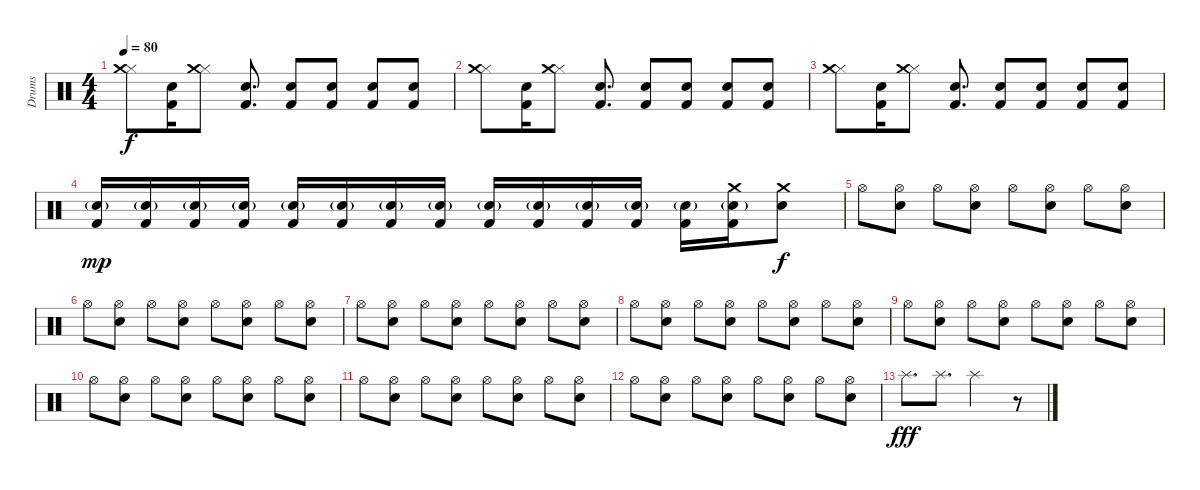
\track ("Drums" "Drums") {instrument percussion}
\staff {score}
\articulation defaults
\ts (4 4)
\tempo 80
\clef neutral
\ks c
("Hi-Hat (closed)" "Crash medium (hit)").8{dy f} ("Electric Snare (hit)" "Kick (hit) 2").16 ("Hi-Hat (closed)" "Crash medium (hit)").8 ("Electric Snare (hit)" "Kick (hit) 2").8{d} ("Electric Snare (hit)" "Kick (hit) 2").8 ("Electric Snare (hit)" "Kick (hit) 2").8 ("Electric Snare (hit)" "Kick (hit) 2").8 ("Electric Snare (hit)" "Kick (hit) 2").8 |
("Hi-Hat (closed)" "Crash medium (hit)").8 ("Electric Snare (hit)" "Kick (hit) 2").16 ("Hi-Hat (closed)" "Crash medium (hit)").8 ("Electric Snare (hit)" "Kick (hit) 2").8{d} ("Electric Snare (hit)" "Kick (hit) 2").8 ("Electric Snare (hit)" "Kick (hit) 2").8 ("Electric Snare (hit)" "Kick (hit) 2").8 ("Electric Snare (hit)" "Kick (hit) 2").8 |
("Hi-Hat (closed)" "Crash medium (hit)").8 ("Electric Snare (hit)" "Kick (hit) 2").16 ("Hi-Hat (closed)" "Crash medium (hit)").8 ("Electric Snare (hit)" "Kick (hit) 2").8{d} ("Electric Snare (hit)" "Kick (hit) 2").8 ("Electric Snare (hit)" "Kick (hit) 2").8 ("Electric Snare (hit)" "Kick (hit) 2").8 ("Electric Snare (hit)" "Kick (hit) 2").8 |
("Kick (hit) 2" "Electric Snare (hit)"{g}).16{dy mp volume 7} ("Kick (hit) 2" "Electric Snare (hit)"{g}).16{volume 16} ("Kick (hit) 2" "Electric Snare (hit)"{g}).16 ("Kick (hit) 2" "Electric Snare (hit)"{g}).16 ("Kick (hit) 2" "Electric Snare (hit)"{g}).16 ("Kick (hit) 2" "Electric Snare (hit)"{g}).16 ("Kick (hit) 2" "Electric Snare (hit)"{g}).16 ("Kick (hit) 2" "Electric Snare (hit)"{g}).16 ("Kick (hit) 2" "Electric Snare (hit)"{g}).16 ("Kick (hit) 2" "Electric Snare (hit)"{g}).16 ("Kick (hit) 2" "Electric Snare (hit)"{g}).16 ("Kick (hit) 2" "Electric Snare (hit)"{g}).16 ("Kick (hit) 2" "Electric Snare (hit)"{g}).16 ("Kick (hit) 2" "Electric Snare (hit)"{g} "Crash medium (hit)").16 ("Crash medium (hit)" "Electric Snare (hit)").8{dy f} |
"Hi-Hat (open)".8{volume 13} ("Hi-Hat (open)" "Electric Snare (hit)").8 "Hi-Hat (open)".8 ("Hi-Hat (open)" "Electric Snare (hit)").8 "Hi-Hat (open)".8 ("Hi-Hat (open)" "Electric Snare (hit)").8 "Hi-Hat (open)".8 ("Hi-Hat (open)" "Electric Snare (hit)").8 |
"Hi-Hat (open)".8 ("Hi-Hat (open)" "Electric Snare (hit)").8 "Hi-Hat (open)".8 ("Hi-Hat (open)" "Electric Snare (hit)").8 "Hi-Hat (open)".8 ("Hi-Hat (open)" "Electric Snare (hit)").8 "Hi-Hat (open)".8 ("Hi-Hat (open)" "Electric Snare (hit)").8 |
"Hi-Hat (open)".8 ("Hi-Hat (open)" "Electric Snare (hit)").8 "Hi-Hat (open)".8 ("Hi-Hat (open)" "Electric Snare (hit)").8 "Hi-Hat (open)".8 ("Hi-Hat (open)" "Electric Snare (hit)").8 "Hi-Hat (open)".8 ("Hi-Hat (open)" "Electric Snare (hit)").8 |
"Hi-Hat (open)".8 ("Hi-Hat (open)" "Electric Snare (hit)").8 "Hi-Hat (open)".8 ("Hi-Hat (open)" "Electric Snare (hit)").8 "Hi-Hat (open)".8 ("Hi-Hat (open)" "Electric Snare (hit)").8 "Hi-Hat (open)".8 ("Hi-Hat (open)" "Electric Snare (hit)").8 |
"Hi-Hat (open)".8 ("Hi-Hat (open)" "Electric Snare (hit)").8 "Hi-Hat (open)".8 ("Hi-Hat (open)" "Electric Snare (hit)").8 "Hi-Hat (open)".8 ("Hi-Hat (open)" "Electric Snare (hit)").8 "Hi-Hat (open)".8 ("Hi-Hat (open)" "Electric Snare (hit)").8 |
"Hi-Hat (open)".8 ("Hi-Hat (open)" "Electric Snare (hit)").8 "Hi-Hat (open)".8 ("Hi-Hat (open)" "Electric Snare (hit)").8 "Hi-Hat (open)".8 ("Hi-Hat (open)" "Electric Snare (hit)").8 "Hi-Hat (open)".8 ("Hi-Hat (open)" "Electric Snare (hit)").8 |
"Hi-Hat (open)".8 ("Hi-Hat (open)" "Electric Snare (hit)").8 "Hi-Hat (open)".8 ("Hi-Hat (open)" "Electric Snare (hit)").8 "Hi-Hat (open)".8 ("Hi-Hat (open)" "Electric Snare (hit)").8 "Hi-Hat (open)".8 ("Hi-Hat (open)" "Electric Snare (hit)").8 |
"Hi-Hat (open)".8 ("Hi-Hat (open)" "Electric Snare (hit)").8 "Hi-Hat (open)".8 ("Hi-Hat (open)" "Electric Snare (hit)").8 "Hi-Hat (open)".8 ("Hi-Hat (open)" "Electric Snare (hit)").8 "Hi-Hat (open)".8 ("Hi-Hat (open)" "Electric Snare (hit)").8 |
"Splash (hit)".8{d dy fff} "Splash (hit)".8{d} "Splash (hit)".2 r.8
